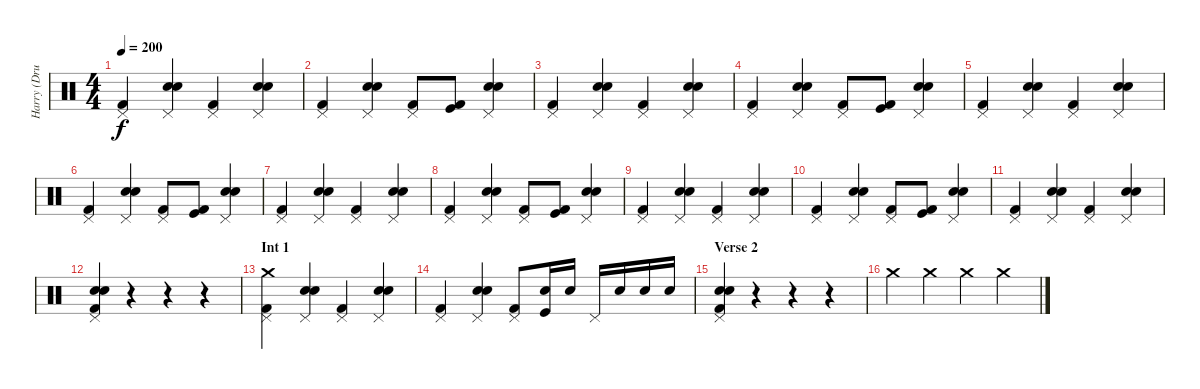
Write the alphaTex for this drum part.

\track ("Harry (Drums)" "Harry (Dru") {instrument percussion}
\staff {score}
\articulation defaults
\ts (4 4)
\tempo 200
\clef neutral
\ks c
("Kick (hit) 2" "Pedal Hi-Hat (hit)").4{dy f} ("Snare (hit) 2" "Electric Snare (hit)" "Pedal Hi-Hat (hit)").4 ("Kick (hit) 2" "Pedal Hi-Hat (hit)").4 ("Snare (hit) 2" "Electric Snare (hit)" "Pedal Hi-Hat (hit)").4 |
("Kick (hit) 2" "Pedal Hi-Hat (hit)").4 ("Snare (hit) 2" "Electric Snare (hit)" "Pedal Hi-Hat (hit)").4 ("Kick (hit) 2" "Pedal Hi-Hat (hit)").8 ("Kick (hit) 2" "Kick (hit)").8 ("Snare (hit) 2" "Electric Snare (hit)" "Pedal Hi-Hat (hit)").4 |
("Kick (hit) 2" "Pedal Hi-Hat (hit)").4 ("Snare (hit) 2" "Electric Snare (hit)" "Pedal Hi-Hat (hit)").4 ("Kick (hit) 2" "Pedal Hi-Hat (hit)").4 ("Snare (hit) 2" "Electric Snare (hit)" "Pedal Hi-Hat (hit)").4 |
("Kick (hit) 2" "Pedal Hi-Hat (hit)").4 ("Snare (hit) 2" "Electric Snare (hit)" "Pedal Hi-Hat (hit)").4 ("Kick (hit) 2" "Pedal Hi-Hat (hit)").8 ("Kick (hit) 2" "Kick (hit)").8 ("Snare (hit) 2" "Electric Snare (hit)" "Pedal Hi-Hat (hit)").4 |
("Kick (hit) 2" "Pedal Hi-Hat (hit)").4 ("Snare (hit) 2" "Electric Snare (hit)" "Pedal Hi-Hat (hit)").4 ("Kick (hit) 2" "Pedal Hi-Hat (hit)").4 ("Snare (hit) 2" "Electric Snare (hit)" "Pedal Hi-Hat (hit)").4 |
("Kick (hit) 2" "Pedal Hi-Hat (hit)").4 ("Snare (hit) 2" "Electric Snare (hit)" "Pedal Hi-Hat (hit)").4 ("Kick (hit) 2" "Pedal Hi-Hat (hit)").8 ("Kick (hit) 2" "Kick (hit)").8 ("Snare (hit) 2" "Electric Snare (hit)" "Pedal Hi-Hat (hit)").4 |
("Kick (hit) 2" "Pedal Hi-Hat (hit)").4 ("Snare (hit) 2" "Electric Snare (hit)" "Pedal Hi-Hat (hit)").4 ("Kick (hit) 2" "Pedal Hi-Hat (hit)").4 ("Snare (hit) 2" "Electric Snare (hit)" "Pedal Hi-Hat (hit)").4 |
("Kick (hit) 2" "Pedal Hi-Hat (hit)").4 ("Snare (hit) 2" "Electric Snare (hit)" "Pedal Hi-Hat (hit)").4 ("Kick (hit) 2" "Pedal Hi-Hat (hit)").8 ("Kick (hit) 2" "Kick (hit)").8 ("Snare (hit) 2" "Electric Snare (hit)" "Pedal Hi-Hat (hit)").4 |
("Kick (hit) 2" "Pedal Hi-Hat (hit)").4 ("Snare (hit) 2" "Electric Snare (hit)" "Pedal Hi-Hat (hit)").4 ("Kick (hit) 2" "Pedal Hi-Hat (hit)").4 ("Snare (hit) 2" "Electric Snare (hit)" "Pedal Hi-Hat (hit)").4 |
("Kick (hit) 2" "Pedal Hi-Hat (hit)").4 ("Snare (hit) 2" "Electric Snare (hit)" "Pedal Hi-Hat (hit)").4 ("Kick (hit) 2" "Pedal Hi-Hat (hit)").8 ("Kick (hit) 2" "Kick (hit)").8 ("Snare (hit) 2" "Electric Snare (hit)" "Pedal Hi-Hat (hit)").4 |
("Kick (hit) 2" "Pedal Hi-Hat (hit)").4 ("Snare (hit) 2" "Electric Snare (hit)" "Pedal Hi-Hat (hit)").4 ("Kick (hit) 2" "Pedal Hi-Hat (hit)").4 ("Snare (hit) 2" "Electric Snare (hit)" "Pedal Hi-Hat (hit)").4 |
("Kick (hit) 2" "Electric Snare (hit)" "Snare (hit) 2" "Pedal Hi-Hat (hit)").4 r.4 r.4 r.4 |
\section ("" "Int 1")
("Kick (hit) 2" "Pedal Hi-Hat (hit)" "Crash medium (hit)").4 ("Snare (hit) 2" "Electric Snare (hit)" "Pedal Hi-Hat (hit)").4 ("Kick (hit) 2" "Pedal Hi-Hat (hit)").4 ("Snare (hit) 2" "Electric Snare (hit)" "Pedal Hi-Hat (hit)").4 |
("Kick (hit) 2" "Pedal Hi-Hat (hit)").4 ("Snare (hit) 2" "Electric Snare (hit)" "Pedal Hi-Hat (hit)").4 ("Kick (hit) 2" "Pedal Hi-Hat (hit)").8 ("Snare (hit) 2" "Kick (hit)").16 "Snare (hit) 2".16 "Pedal Hi-Hat (hit)".16 "Snare (hit) 2".16 "Snare (hit) 2".16 "Snare (hit) 2".16 |
\section ("" "Verse 2")
("Kick (hit) 2" "Electric Snare (hit)" "Snare (hit) 2" "Pedal Hi-Hat (hit)").4 r.4 r.4 r.4 |
"Crash medium (hit)".4 "Crash medium (hit)".4 "Crash medium (hit)".4 "Crash medium (hit)".4
